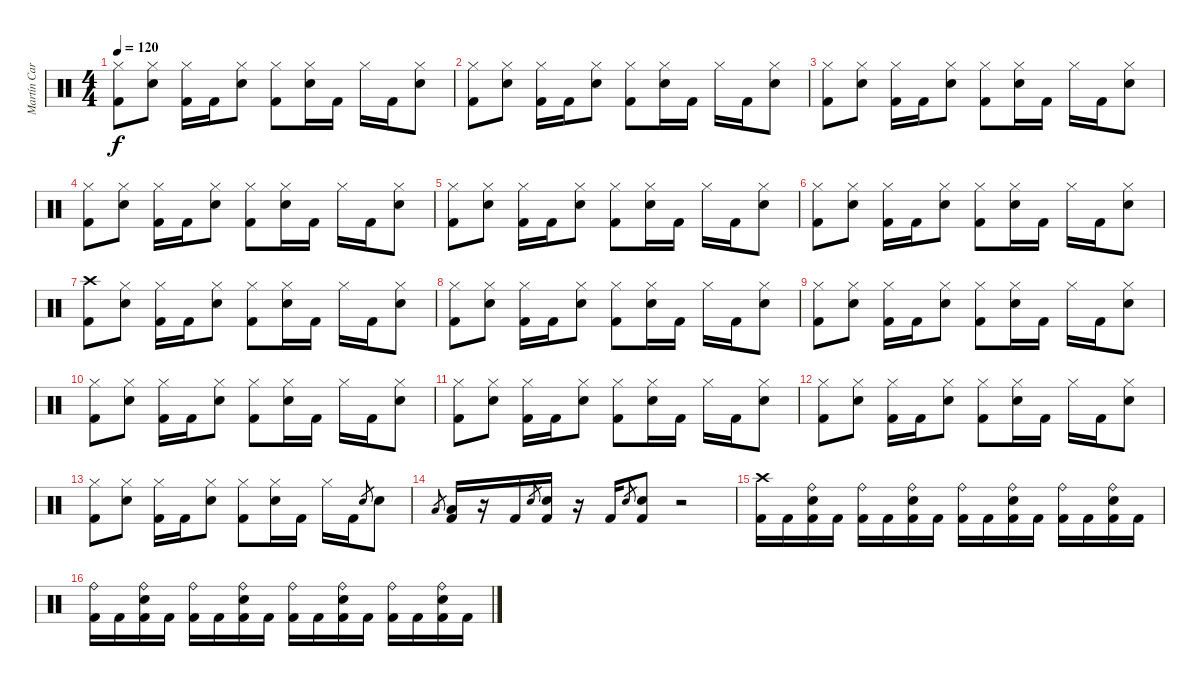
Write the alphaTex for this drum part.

\track ("Martín Carrizo" "Martín Car") {instrument percussion}
\staff {score}
\articulation defaults
\ts (4 4)
\tempo 120
\clef neutral
\ks c
("Hi-Hat (closed)" "Kick (hit) 2").8{dy f} ("Hi-Hat (closed)" "Snare (hit) 2").8 ("Hi-Hat (closed)" "Kick (hit) 2").16 "Kick (hit) 2".16 ("Hi-Hat (closed)" "Snare (hit) 2").8 ("Hi-Hat (closed)" "Kick (hit) 2").8 ("Hi-Hat (closed)" "Snare (hit) 2").16 "Kick (hit) 2".16 "Hi-Hat (closed)".16 "Kick (hit) 2".16 ("Hi-Hat (closed)" "Snare (hit) 2").8 |
("Hi-Hat (closed)" "Kick (hit) 2").8 ("Hi-Hat (closed)" "Snare (hit) 2").8 ("Hi-Hat (closed)" "Kick (hit) 2").16 "Kick (hit) 2".16 ("Hi-Hat (closed)" "Snare (hit) 2").8 ("Hi-Hat (closed)" "Kick (hit) 2").8 ("Hi-Hat (closed)" "Snare (hit) 2").16 "Kick (hit) 2".16 "Hi-Hat (closed)".16 "Kick (hit) 2".16 ("Hi-Hat (closed)" "Snare (hit) 2").8 |
("Hi-Hat (closed)" "Kick (hit) 2").8 ("Hi-Hat (closed)" "Snare (hit) 2").8 ("Hi-Hat (closed)" "Kick (hit) 2").16 "Kick (hit) 2".16 ("Hi-Hat (closed)" "Snare (hit) 2").8 ("Hi-Hat (closed)" "Kick (hit) 2").8 ("Hi-Hat (closed)" "Snare (hit) 2").16 "Kick (hit) 2".16 "Hi-Hat (closed)".16 "Kick (hit) 2".16 ("Hi-Hat (closed)" "Snare (hit) 2").8 |
("Hi-Hat (closed)" "Kick (hit) 2").8 ("Hi-Hat (closed)" "Snare (hit) 2").8 ("Hi-Hat (closed)" "Kick (hit) 2").16 "Kick (hit) 2".16 ("Hi-Hat (closed)" "Snare (hit) 2").8 ("Hi-Hat (closed)" "Kick (hit) 2").8 ("Hi-Hat (closed)" "Snare (hit) 2").16 "Kick (hit) 2".16 "Hi-Hat (closed)".16 "Kick (hit) 2".16 ("Hi-Hat (closed)" "Snare (hit) 2").8 |
("Hi-Hat (closed)" "Kick (hit) 2").8 ("Hi-Hat (closed)" "Snare (hit) 2").8 ("Hi-Hat (closed)" "Kick (hit) 2").16 "Kick (hit) 2".16 ("Hi-Hat (closed)" "Snare (hit) 2").8 ("Hi-Hat (closed)" "Kick (hit) 2").8 ("Hi-Hat (closed)" "Snare (hit) 2").16 "Kick (hit) 2".16 "Hi-Hat (closed)".16 "Kick (hit) 2".16 ("Hi-Hat (closed)" "Snare (hit) 2").8 |
("Hi-Hat (closed)" "Kick (hit) 2").8 ("Hi-Hat (closed)" "Snare (hit) 2").8 ("Hi-Hat (closed)" "Kick (hit) 2").16 "Kick (hit) 2".16 ("Hi-Hat (closed)" "Snare (hit) 2").8 ("Hi-Hat (closed)" "Kick (hit) 2").8 ("Hi-Hat (closed)" "Snare (hit) 2").16 "Kick (hit) 2".16 "Hi-Hat (closed)".16 "Kick (hit) 2".16 ("Hi-Hat (closed)" "Snare (hit) 2").8 |
("Crash high (hit)" "Kick (hit) 2").8 ("Hi-Hat (closed)" "Snare (hit) 2").8 ("Hi-Hat (closed)" "Kick (hit) 2").16 "Kick (hit) 2".16 ("Hi-Hat (closed)" "Snare (hit) 2").8 ("Hi-Hat (closed)" "Kick (hit) 2").8 ("Hi-Hat (closed)" "Snare (hit) 2").16 "Kick (hit) 2".16 "Hi-Hat (closed)".16 "Kick (hit) 2".16 ("Hi-Hat (closed)" "Snare (hit) 2").8 |
("Hi-Hat (closed)" "Kick (hit) 2").8 ("Hi-Hat (closed)" "Snare (hit) 2").8 ("Hi-Hat (closed)" "Kick (hit) 2").16 "Kick (hit) 2".16 ("Hi-Hat (closed)" "Snare (hit) 2").8 ("Hi-Hat (closed)" "Kick (hit) 2").8 ("Hi-Hat (closed)" "Snare (hit) 2").16 "Kick (hit) 2".16 "Hi-Hat (closed)".16 "Kick (hit) 2".16 ("Hi-Hat (closed)" "Snare (hit) 2").8 |
("Hi-Hat (closed)" "Kick (hit) 2").8 ("Hi-Hat (closed)" "Snare (hit) 2").8 ("Hi-Hat (closed)" "Kick (hit) 2").16 "Kick (hit) 2".16 ("Hi-Hat (closed)" "Snare (hit) 2").8 ("Hi-Hat (closed)" "Kick (hit) 2").8 ("Hi-Hat (closed)" "Snare (hit) 2").16 "Kick (hit) 2".16 "Hi-Hat (closed)".16 "Kick (hit) 2".16 ("Hi-Hat (closed)" "Snare (hit) 2").8 |
("Hi-Hat (closed)" "Kick (hit) 2").8 ("Hi-Hat (closed)" "Snare (hit) 2").8 ("Hi-Hat (closed)" "Kick (hit) 2").16 "Kick (hit) 2".16 ("Hi-Hat (closed)" "Snare (hit) 2").8 ("Hi-Hat (closed)" "Kick (hit) 2").8 ("Hi-Hat (closed)" "Snare (hit) 2").16 "Kick (hit) 2".16 "Hi-Hat (closed)".16 "Kick (hit) 2".16 ("Hi-Hat (closed)" "Snare (hit) 2").8 |
("Hi-Hat (closed)" "Kick (hit) 2").8 ("Hi-Hat (closed)" "Snare (hit) 2").8 ("Hi-Hat (closed)" "Kick (hit) 2").16 "Kick (hit) 2".16 ("Hi-Hat (closed)" "Snare (hit) 2").8 ("Hi-Hat (closed)" "Kick (hit) 2").8 ("Hi-Hat (closed)" "Snare (hit) 2").16 "Kick (hit) 2".16 "Hi-Hat (closed)".16 "Kick (hit) 2".16 ("Hi-Hat (closed)" "Snare (hit) 2").8 |
("Hi-Hat (closed)" "Kick (hit) 2").8 ("Hi-Hat (closed)" "Snare (hit) 2").8 ("Hi-Hat (closed)" "Kick (hit) 2").16 "Kick (hit) 2".16 ("Hi-Hat (closed)" "Snare (hit) 2").8 ("Hi-Hat (closed)" "Kick (hit) 2").8 ("Hi-Hat (closed)" "Snare (hit) 2").16 "Kick (hit) 2".16 "Hi-Hat (closed)".16 "Kick (hit) 2".16 ("Hi-Hat (closed)" "Snare (hit) 2").8 |
("Hi-Hat (closed)" "Kick (hit) 2").8 ("Hi-Hat (closed)" "Snare (hit) 2").8 ("Hi-Hat (closed)" "Kick (hit) 2").16 "Kick (hit) 2".16 ("Hi-Hat (closed)" "Snare (hit) 2").8 ("Hi-Hat (closed)" "Kick (hit) 2").8 ("Hi-Hat (closed)" "Snare (hit) 2").16 "Kick (hit) 2".16 "Hi-Hat (closed)".16 "Kick (hit) 2".16 "Snare (hit) 2".8{gr} "Snare (hit) 2".8 |
"Low Tom (hit)".8{gr} ("Low Tom (hit)" "Kick (hit) 2").16 r.16 "Kick (hit) 2".16 "Snare (hit) 2".8{gr} ("Snare (hit) 2" "Kick (hit) 2").16 r.16 "Kick (hit) 2".16 "Snare (hit) 2".8{gr} ("Snare (hit) 2" "Kick (hit) 2").8 r.2 |
("Crash high (hit)" "Kick (hit) 2").16 "Kick (hit) 2".16 ("Ride (bell)" "Snare (hit) 2" "Kick (hit) 2").16 "Kick (hit) 2".16 ("Ride (bell)" "Kick (hit) 2").16 "Kick (hit) 2".16 ("Ride (bell)" "Snare (hit) 2" "Kick (hit) 2").16 "Kick (hit) 2".16 ("Ride (bell)" "Kick (hit) 2").16 "Kick (hit) 2".16 ("Ride (bell)" "Snare (hit) 2" "Kick (hit) 2").16 "Kick (hit) 2".16 ("Ride (bell)" "Kick (hit) 2").16 "Kick (hit) 2".16 ("Ride (bell)" "Snare (hit) 2" "Kick (hit) 2").16 "Kick (hit) 2".16 |
("Ride (bell)" "Kick (hit) 2").16 "Kick (hit) 2".16 ("Ride (bell)" "Snare (hit) 2" "Kick (hit) 2").16 "Kick (hit) 2".16 ("Ride (bell)" "Kick (hit) 2").16 "Kick (hit) 2".16 ("Ride (bell)" "Snare (hit) 2" "Kick (hit) 2").16 "Kick (hit) 2".16 ("Ride (bell)" "Kick (hit) 2").16 "Kick (hit) 2".16 ("Ride (bell)" "Snare (hit) 2" "Kick (hit) 2").16 "Kick (hit) 2".16 ("Ride (bell)" "Kick (hit) 2").16 "Kick (hit) 2".16 ("Ride (bell)" "Snare (hit) 2" "Kick (hit) 2").16 "Kick (hit) 2".16
